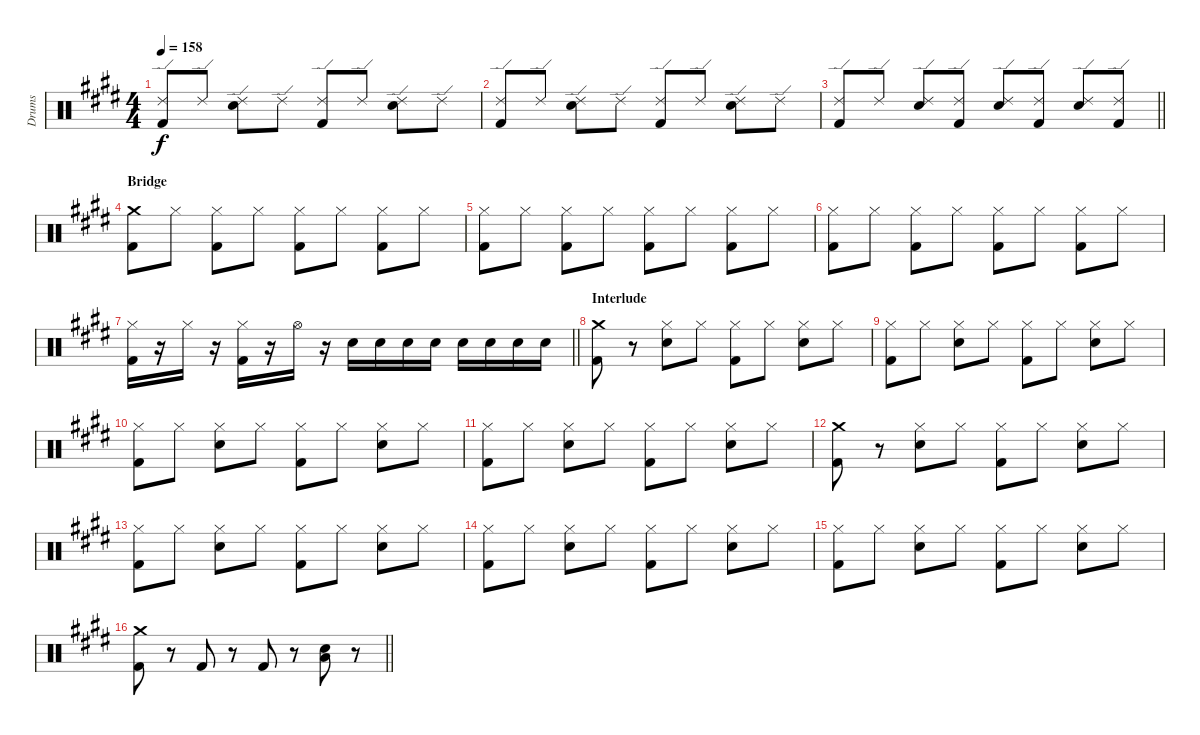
\track ("Drums" "Drums") {instrument percussion}
\staff {score}
\articulation defaults
\ts (4 4)
\tempo 158
\clef neutral
\ks c#minor
("Ride (edge) 2" "Kick (hit) 2").8{dy f} "Ride (edge) 2".8 ("Ride (edge) 2" "Snare (hit) 2").8 "Ride (edge) 2".8 ("Ride (edge) 2" "Kick (hit) 2").8 "Ride (edge) 2".8 ("Ride (edge) 2" "Snare (hit) 2").8 "Ride (edge) 2".8 |
("Ride (edge) 2" "Kick (hit) 2").8 "Ride (edge) 2".8 ("Ride (edge) 2" "Snare (hit) 2").8 "Ride (edge) 2".8 ("Ride (edge) 2" "Kick (hit) 2").8 "Ride (edge) 2".8 ("Ride (edge) 2" "Snare (hit) 2").8 "Ride (edge) 2".8 |
\barLineRight lightlight
("Ride (edge) 2" "Kick (hit) 2").8 "Ride (edge) 2".8 ("Ride (edge) 2" "Snare (hit) 2").8 ("Ride (edge) 2" "Kick (hit) 2").8 ("Ride (edge) 2" "Snare (hit) 2").8 ("Ride (edge) 2" "Kick (hit) 2").8 ("Ride (edge) 2" "Snare (hit) 2").8 ("Ride (edge) 2" "Kick (hit) 2").8 |
\section ("" "Bridge")
\ks e
("Crash medium (hit)" "Kick (hit) 2").8 "Hi-Hat (closed)".8 ("Hi-Hat (closed)" "Kick (hit) 2").8 "Hi-Hat (closed)".8 ("Hi-Hat (closed)" "Kick (hit) 2").8 "Hi-Hat (closed)".8 ("Hi-Hat (closed)" "Kick (hit) 2").8 "Hi-Hat (closed)".8 |
\ks c#minor
("Hi-Hat (closed)" "Kick (hit) 2").8 "Hi-Hat (closed)".8 ("Hi-Hat (closed)" "Kick (hit) 2").8 "Hi-Hat (closed)".8 ("Hi-Hat (closed)" "Kick (hit) 2").8 "Hi-Hat (closed)".8 ("Hi-Hat (closed)" "Kick (hit) 2").8 "Hi-Hat (closed)".8 |
\ks e
("Hi-Hat (closed)" "Kick (hit) 2").8 "Hi-Hat (closed)".8 ("Hi-Hat (closed)" "Kick (hit) 2").8 "Hi-Hat (closed)".8 ("Hi-Hat (closed)" "Kick (hit) 2").8 "Hi-Hat (closed)".8 ("Hi-Hat (closed)" "Kick (hit) 2").8 "Hi-Hat (closed)".8 |
\barLineRight lightlight
\ks c#minor
("Hi-Hat (closed)" "Kick (hit) 2").16 r.16 "Hi-Hat (closed)".16 r.16 ("Hi-Hat (closed)" "Kick (hit) 2").16 r.16 "Hi-Hat (open)".16 r.16 "Snare (hit) 2".16 "Snare (hit) 2".16 "Snare (hit) 2".16 "Snare (hit) 2".16 "Snare (hit) 2".16 "Snare (hit) 2".16 "Snare (hit) 2".16 "Snare (hit) 2".16 |
\section ("" "Interlude")
\ks e
("Crash medium (hit)" "Kick (hit) 2").8 r.8 ("Hi-Hat (closed)" "Snare (hit) 2").8 "Hi-Hat (closed)".8 ("Hi-Hat (closed)" "Kick (hit) 2").8 "Hi-Hat (closed)".8 ("Hi-Hat (closed)" "Snare (hit) 2").8 "Hi-Hat (closed)".8 |
("Hi-Hat (closed)" "Kick (hit) 2").8 "Hi-Hat (closed)".8 ("Hi-Hat (closed)" "Snare (hit) 2").8 "Hi-Hat (closed)".8 ("Hi-Hat (closed)" "Kick (hit) 2").8 "Hi-Hat (closed)".8 ("Hi-Hat (closed)" "Snare (hit) 2").8 "Hi-Hat (closed)".8 |
\ks c#minor
("Hi-Hat (closed)" "Kick (hit) 2").8 "Hi-Hat (closed)".8 ("Hi-Hat (closed)" "Snare (hit) 2").8 "Hi-Hat (closed)".8 ("Hi-Hat (closed)" "Kick (hit) 2").8 "Hi-Hat (closed)".8 ("Hi-Hat (closed)" "Snare (hit) 2").8 "Hi-Hat (closed)".8 |
("Hi-Hat (closed)" "Kick (hit) 2").8 "Hi-Hat (closed)".8 ("Hi-Hat (closed)" "Snare (hit) 2").8 "Hi-Hat (closed)".8 ("Hi-Hat (closed)" "Kick (hit) 2").8 "Hi-Hat (closed)".8 ("Hi-Hat (closed)" "Snare (hit) 2").8 "Hi-Hat (closed)".8 |
\ks e
("Crash medium (hit)" "Kick (hit) 2").8 r.8 ("Hi-Hat (closed)" "Snare (hit) 2").8 "Hi-Hat (closed)".8 ("Hi-Hat (closed)" "Kick (hit) 2").8 "Hi-Hat (closed)".8 ("Hi-Hat (closed)" "Snare (hit) 2").8 "Hi-Hat (closed)".8 |
("Hi-Hat (closed)" "Kick (hit) 2").8 "Hi-Hat (closed)".8 ("Hi-Hat (closed)" "Snare (hit) 2").8 "Hi-Hat (closed)".8 ("Hi-Hat (closed)" "Kick (hit) 2").8 "Hi-Hat (closed)".8 ("Hi-Hat (closed)" "Snare (hit) 2").8 "Hi-Hat (closed)".8 |
\ks c#minor
("Hi-Hat (closed)" "Kick (hit) 2").8 "Hi-Hat (closed)".8 ("Hi-Hat (closed)" "Snare (hit) 2").8 "Hi-Hat (closed)".8 ("Hi-Hat (closed)" "Kick (hit) 2").8 "Hi-Hat (closed)".8 ("Hi-Hat (closed)" "Snare (hit) 2").8 "Hi-Hat (closed)".8 |
("Hi-Hat (closed)" "Kick (hit) 2").8 "Hi-Hat (closed)".8 ("Hi-Hat (closed)" "Snare (hit) 2").8 "Hi-Hat (closed)".8 ("Hi-Hat (closed)" "Kick (hit) 2").8 "Hi-Hat (closed)".8 ("Hi-Hat (closed)" "Snare (hit) 2").8 "Hi-Hat (closed)".8 |
\barLineRight lightlight
("Crash medium (hit)" "Kick (hit) 2").8 r.8 "Kick (hit) 2".8 r.8 "Kick (hit) 2".8 r.8 ("Snare (hit) 2" "Low Floor Tom (hit)").8 r.8
